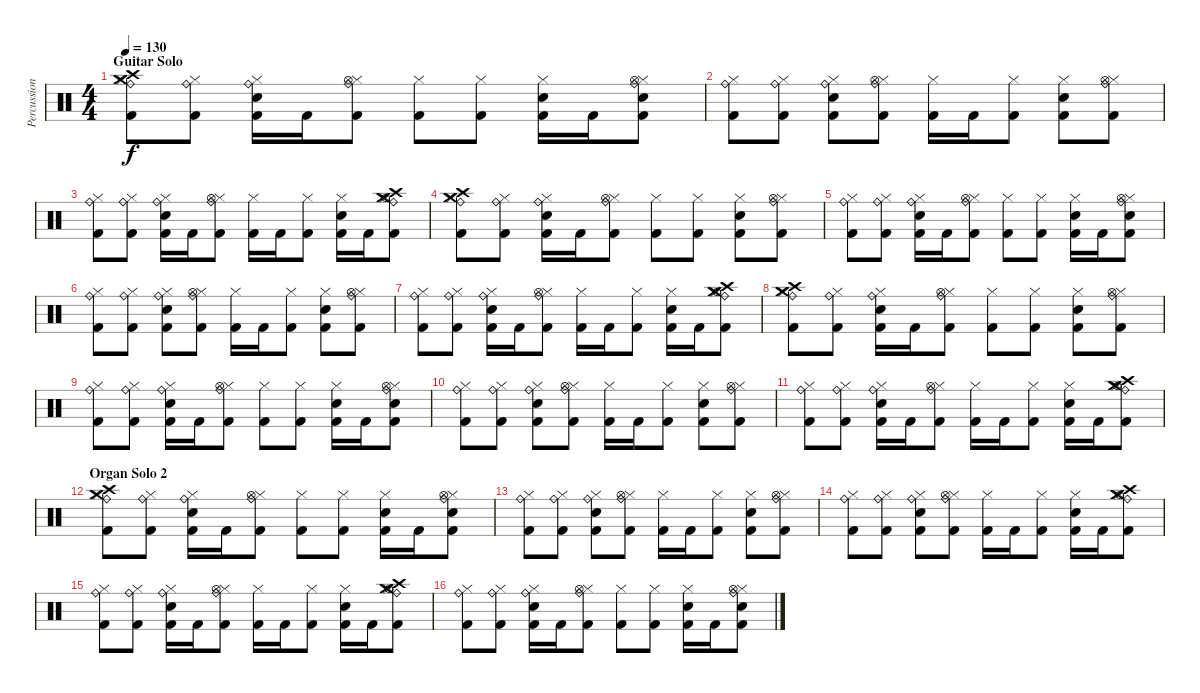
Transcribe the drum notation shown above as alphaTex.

\track ("Percussion" "Percussion") {instrument percussion}
\staff {score}
\articulation defaults
\ts (4 4)
\section ("" "Guitar Solo")
\tempo 130
\clef neutral
\ks c
("Hi-Hat (closed)" "Crash medium (hit)" "Ride (bell)" "Crash high (hit)" "Kick (hit) 2").8{dy f} ("Hi-Hat (closed)" "Ride (bell)" "Kick (hit) 2").8 ("Hi-Hat (closed)" "Ride (bell)" "Electric Snare (hit)" "Kick (hit) 2").16 "Kick (hit) 2".16 ("Hi-Hat (closed)" "Ride (bell)" "Hi-Hat (open)" "Kick (hit) 2").8 ("Hi-Hat (closed)" "Kick (hit) 2").8 ("Hi-Hat (closed)" "Kick (hit) 2").8 ("Hi-Hat (closed)" "Electric Snare (hit)" "Kick (hit) 2").16 "Kick (hit) 2".16 ("Hi-Hat (closed)" "Ride (bell)" "Hi-Hat (open)" "Electric Snare (hit)" "Kick (hit) 2").8 |
("Hi-Hat (closed)" "Ride (bell)" "Kick (hit) 2").8 ("Hi-Hat (closed)" "Ride (bell)" "Kick (hit) 2").8 ("Hi-Hat (closed)" "Ride (bell)" "Electric Snare (hit)" "Kick (hit) 2").8 ("Hi-Hat (closed)" "Ride (bell)" "Hi-Hat (open)" "Kick (hit) 2").8 ("Hi-Hat (closed)" "Kick (hit) 2").16 "Kick (hit) 2".16 ("Hi-Hat (closed)" "Kick (hit) 2").8 ("Hi-Hat (closed)" "Electric Snare (hit)" "Kick (hit) 2").8 ("Hi-Hat (closed)" "Ride (bell)" "Hi-Hat (open)" "Kick (hit) 2").8 |
("Hi-Hat (closed)" "Ride (bell)" "Kick (hit) 2").8 ("Hi-Hat (closed)" "Ride (bell)" "Kick (hit) 2").8 ("Hi-Hat (closed)" "Ride (bell)" "Electric Snare (hit)" "Kick (hit) 2").16 "Kick (hit) 2".16 ("Hi-Hat (closed)" "Ride (bell)" "Hi-Hat (open)" "Kick (hit) 2").8 ("Hi-Hat (closed)" "Kick (hit) 2").16 "Kick (hit) 2".16 ("Hi-Hat (closed)" "Kick (hit) 2").8 ("Hi-Hat (closed)" "Electric Snare (hit)" "Kick (hit) 2").16 "Kick (hit) 2".16 ("Hi-Hat (closed)" "Ride (bell)" "Hi-Hat (open)" "Crash high (hit)" "Kick (hit) 2" "Crash medium (hit)").8 |
("Hi-Hat (closed)" "Ride (bell)" "Crash medium (hit)" "Crash high (hit)" "Kick (hit) 2").8 ("Hi-Hat (closed)" "Ride (bell)" "Kick (hit) 2").8 ("Hi-Hat (closed)" "Ride (bell)" "Electric Snare (hit)" "Kick (hit) 2").16 "Kick (hit) 2".16 ("Hi-Hat (closed)" "Ride (bell)" "Hi-Hat (open)" "Kick (hit) 2").8 ("Hi-Hat (closed)" "Kick (hit) 2").8 ("Hi-Hat (closed)" "Kick (hit) 2").8 ("Hi-Hat (closed)" "Electric Snare (hit)" "Kick (hit) 2").8 ("Hi-Hat (closed)" "Ride (bell)" "Hi-Hat (open)" "Kick (hit) 2").8 |
("Hi-Hat (closed)" "Ride (bell)" "Kick (hit) 2").8 ("Hi-Hat (closed)" "Ride (bell)" "Kick (hit) 2").8 ("Hi-Hat (closed)" "Ride (bell)" "Electric Snare (hit)" "Kick (hit) 2").16 "Kick (hit) 2".16 ("Hi-Hat (closed)" "Ride (bell)" "Hi-Hat (open)" "Kick (hit) 2").8 ("Hi-Hat (closed)" "Kick (hit) 2").8 ("Hi-Hat (closed)" "Kick (hit) 2").8 ("Hi-Hat (closed)" "Electric Snare (hit)" "Kick (hit) 2").16 "Kick (hit) 2".16 ("Hi-Hat (closed)" "Ride (bell)" "Hi-Hat (open)" "Electric Snare (hit)" "Kick (hit) 2").8 |
("Hi-Hat (closed)" "Ride (bell)" "Kick (hit) 2").8 ("Hi-Hat (closed)" "Ride (bell)" "Kick (hit) 2").8 ("Hi-Hat (closed)" "Ride (bell)" "Electric Snare (hit)" "Kick (hit) 2").8 ("Hi-Hat (closed)" "Ride (bell)" "Hi-Hat (open)" "Kick (hit) 2").8 ("Hi-Hat (closed)" "Kick (hit) 2").16 "Kick (hit) 2".16 ("Hi-Hat (closed)" "Kick (hit) 2").8 ("Hi-Hat (closed)" "Electric Snare (hit)" "Kick (hit) 2").8 ("Hi-Hat (closed)" "Ride (bell)" "Hi-Hat (open)" "Kick (hit) 2").8 |
("Hi-Hat (closed)" "Ride (bell)" "Kick (hit) 2").8 ("Hi-Hat (closed)" "Ride (bell)" "Kick (hit) 2").8 ("Hi-Hat (closed)" "Ride (bell)" "Electric Snare (hit)" "Kick (hit) 2").16 "Kick (hit) 2".16 ("Hi-Hat (closed)" "Ride (bell)" "Hi-Hat (open)" "Kick (hit) 2").8 ("Hi-Hat (closed)" "Kick (hit) 2").16 "Kick (hit) 2".16 ("Hi-Hat (closed)" "Kick (hit) 2").8 ("Hi-Hat (closed)" "Electric Snare (hit)" "Kick (hit) 2").16 "Kick (hit) 2".16 ("Hi-Hat (closed)" "Ride (bell)" "Hi-Hat (open)" "Crash high (hit)" "Kick (hit) 2" "Crash medium (hit)").8 |
("Hi-Hat (closed)" "Crash medium (hit)" "Ride (bell)" "Kick (hit) 2" "Crash high (hit)").8 ("Hi-Hat (closed)" "Ride (bell)" "Kick (hit) 2").8 ("Hi-Hat (closed)" "Ride (bell)" "Electric Snare (hit)" "Kick (hit) 2").16 "Kick (hit) 2".16 ("Hi-Hat (closed)" "Ride (bell)" "Hi-Hat (open)" "Kick (hit) 2").8 ("Hi-Hat (closed)" "Kick (hit) 2").8 ("Hi-Hat (closed)" "Kick (hit) 2").8 ("Hi-Hat (closed)" "Electric Snare (hit)" "Kick (hit) 2").8 ("Hi-Hat (closed)" "Ride (bell)" "Hi-Hat (open)" "Kick (hit) 2").8 |
("Hi-Hat (closed)" "Ride (bell)" "Kick (hit) 2").8 ("Hi-Hat (closed)" "Ride (bell)" "Kick (hit) 2").8 ("Hi-Hat (closed)" "Ride (bell)" "Electric Snare (hit)" "Kick (hit) 2").16 "Kick (hit) 2".16 ("Hi-Hat (closed)" "Ride (bell)" "Hi-Hat (open)" "Kick (hit) 2").8 ("Hi-Hat (closed)" "Kick (hit) 2").8 ("Hi-Hat (closed)" "Kick (hit) 2").8 ("Hi-Hat (closed)" "Electric Snare (hit)" "Kick (hit) 2").16 "Kick (hit) 2".16 ("Hi-Hat (closed)" "Ride (bell)" "Hi-Hat (open)" "Electric Snare (hit)" "Kick (hit) 2").8 |
("Hi-Hat (closed)" "Ride (bell)" "Kick (hit) 2").8 ("Hi-Hat (closed)" "Ride (bell)" "Kick (hit) 2").8 ("Hi-Hat (closed)" "Ride (bell)" "Electric Snare (hit)" "Kick (hit) 2").8 ("Hi-Hat (closed)" "Ride (bell)" "Hi-Hat (open)" "Kick (hit) 2").8 ("Hi-Hat (closed)" "Kick (hit) 2").16 "Kick (hit) 2".16 ("Hi-Hat (closed)" "Kick (hit) 2").8 ("Hi-Hat (closed)" "Electric Snare (hit)" "Kick (hit) 2").8 ("Hi-Hat (closed)" "Ride (bell)" "Hi-Hat (open)" "Kick (hit) 2").8 |
("Hi-Hat (closed)" "Ride (bell)" "Kick (hit) 2").8 ("Hi-Hat (closed)" "Ride (bell)" "Kick (hit) 2").8 ("Hi-Hat (closed)" "Ride (bell)" "Electric Snare (hit)" "Kick (hit) 2").16 "Kick (hit) 2".16 ("Hi-Hat (closed)" "Ride (bell)" "Hi-Hat (open)" "Kick (hit) 2").8 ("Hi-Hat (closed)" "Kick (hit) 2").16 "Kick (hit) 2".16 ("Hi-Hat (closed)" "Kick (hit) 2").8 ("Hi-Hat (closed)" "Electric Snare (hit)" "Kick (hit) 2").16 "Kick (hit) 2".16 ("Hi-Hat (closed)" "Ride (bell)" "Hi-Hat (open)" "Crash high (hit)" "Kick (hit) 2" "Crash medium (hit)").8 |
\section ("" "Organ Solo 2")
("Hi-Hat (closed)" "Crash medium (hit)" "Ride (bell)" "Crash high (hit)" "Kick (hit) 2").8 ("Hi-Hat (closed)" "Ride (bell)" "Kick (hit) 2").8 ("Hi-Hat (closed)" "Ride (bell)" "Electric Snare (hit)" "Kick (hit) 2").16 "Kick (hit) 2".16 ("Hi-Hat (closed)" "Ride (bell)" "Hi-Hat (open)" "Kick (hit) 2").8 ("Hi-Hat (closed)" "Kick (hit) 2").8 ("Hi-Hat (closed)" "Kick (hit) 2").8 ("Hi-Hat (closed)" "Electric Snare (hit)" "Kick (hit) 2").16 "Kick (hit) 2".16 ("Hi-Hat (closed)" "Ride (bell)" "Hi-Hat (open)" "Electric Snare (hit)" "Kick (hit) 2").8 |
("Hi-Hat (closed)" "Ride (bell)" "Kick (hit) 2").8 ("Hi-Hat (closed)" "Ride (bell)" "Kick (hit) 2").8 ("Hi-Hat (closed)" "Ride (bell)" "Electric Snare (hit)" "Kick (hit) 2").8 ("Hi-Hat (closed)" "Ride (bell)" "Hi-Hat (open)" "Kick (hit) 2").8 ("Hi-Hat (closed)" "Kick (hit) 2").16 "Kick (hit) 2".16 ("Hi-Hat (closed)" "Kick (hit) 2").8 ("Hi-Hat (closed)" "Electric Snare (hit)" "Kick (hit) 2").8 ("Hi-Hat (closed)" "Ride (bell)" "Hi-Hat (open)" "Kick (hit) 2").8 |
("Hi-Hat (closed)" "Ride (bell)" "Kick (hit) 2").8 ("Hi-Hat (closed)" "Ride (bell)" "Kick (hit) 2").8 ("Hi-Hat (closed)" "Ride (bell)" "Electric Snare (hit)" "Kick (hit) 2").8 ("Hi-Hat (closed)" "Ride (bell)" "Hi-Hat (open)" "Kick (hit) 2").8 ("Hi-Hat (closed)" "Kick (hit) 2").16 "Kick (hit) 2".16 ("Hi-Hat (closed)" "Kick (hit) 2").8 ("Hi-Hat (closed)" "Electric Snare (hit)" "Kick (hit) 2").16 "Kick (hit) 2".16 ("Hi-Hat (closed)" "Crash high (hit)" "Ride (bell)" "Hi-Hat (open)" "Kick (hit) 2" "Crash medium (hit)").8 |
("Hi-Hat (closed)" "Ride (bell)" "Kick (hit) 2").8 ("Hi-Hat (closed)" "Ride (bell)" "Kick (hit) 2").8 ("Hi-Hat (closed)" "Ride (bell)" "Electric Snare (hit)" "Kick (hit) 2").16 "Kick (hit) 2".16 ("Hi-Hat (closed)" "Ride (bell)" "Hi-Hat (open)" "Kick (hit) 2").8 ("Hi-Hat (closed)" "Kick (hit) 2").16 "Kick (hit) 2".16 ("Hi-Hat (closed)" "Kick (hit) 2").8 ("Hi-Hat (closed)" "Electric Snare (hit)" "Kick (hit) 2").16 "Kick (hit) 2".16 ("Hi-Hat (closed)" "Ride (bell)" "Hi-Hat (open)" "Crash high (hit)" "Kick (hit) 2" "Crash medium (hit)").8 |
("Hi-Hat (closed)" "Ride (bell)" "Kick (hit) 2").8 ("Hi-Hat (closed)" "Ride (bell)" "Kick (hit) 2").8 ("Hi-Hat (closed)" "Ride (bell)" "Electric Snare (hit)" "Kick (hit) 2").16 "Kick (hit) 2".16 ("Hi-Hat (closed)" "Ride (bell)" "Hi-Hat (open)" "Kick (hit) 2").8 ("Hi-Hat (closed)" "Kick (hit) 2").8 ("Hi-Hat (closed)" "Kick (hit) 2").8 ("Hi-Hat (closed)" "Electric Snare (hit)" "Kick (hit) 2").16 "Kick (hit) 2".16 ("Hi-Hat (closed)" "Ride (bell)" "Hi-Hat (open)" "Electric Snare (hit)" "Kick (hit) 2").8
